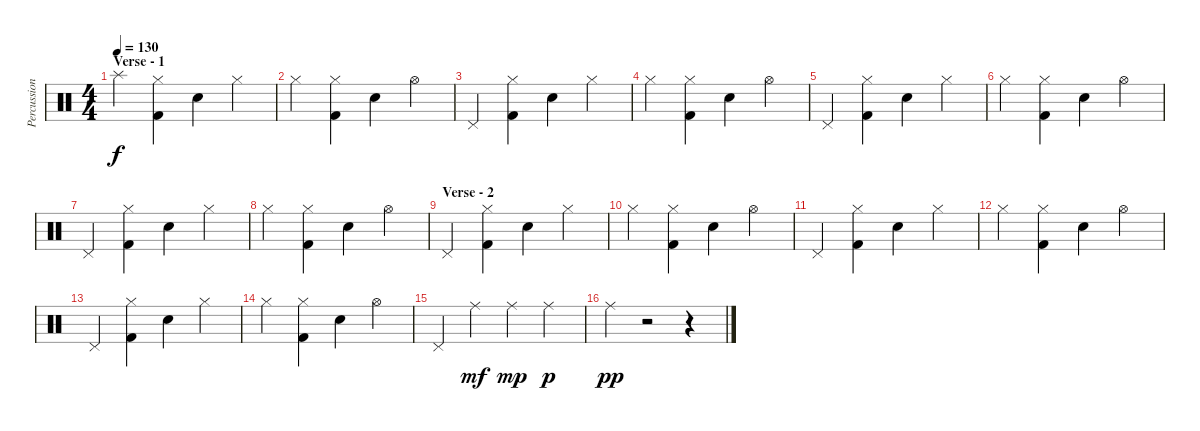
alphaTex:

\track ("Percussion" "Percussion") {instrument percussion}
\staff {score}
\articulation defaults
\ts (4 4)
\section ("" "Verse - 1")
\tempo 130
\clef neutral
\ks c "Splash (hit)".4{dy f}
("Hi-Hat (closed)" "Kick (hit) 2").4 "Snare (hit) 2".4 "Hi-Hat (closed)".4 |
"Hi-Hat (closed)".4 ("Hi-Hat (closed)" "Kick (hit) 2").4 "Snare (hit) 2".4 "Hi-Hat (open)".4 |
"Pedal Hi-Hat (hit)".4 ("Hi-Hat (closed)" "Kick (hit) 2").4 "Snare (hit) 2".4 "Hi-Hat (closed)".4 |
"Hi-Hat (closed)".4 ("Hi-Hat (closed)" "Kick (hit) 2").4 "Snare (hit) 2".4 "Hi-Hat (open)".4 |
"Pedal Hi-Hat (hit)".4 ("Hi-Hat (closed)" "Kick (hit) 2").4 "Snare (hit) 2".4 "Hi-Hat (closed)".4 |
"Hi-Hat (closed)".4 ("Hi-Hat (closed)" "Kick (hit) 2").4 "Snare (hit) 2".4 "Hi-Hat (open)".4 |
"Pedal Hi-Hat (hit)".4 ("Hi-Hat (closed)" "Kick (hit) 2").4 "Snare (hit) 2".4 "Hi-Hat (closed)".4 |
"Hi-Hat (closed)".4 ("Hi-Hat (closed)" "Kick (hit) 2").4 "Snare (hit) 2".4 "Hi-Hat (open)".4 |
\section ("" "Verse - 2")
"Pedal Hi-Hat (hit)".4 ("Hi-Hat (closed)" "Kick (hit) 2").4 "Snare (hit) 2".4 "Hi-Hat (closed)".4 |
"Hi-Hat (closed)".4 ("Hi-Hat (closed)" "Kick (hit) 2").4 "Snare (hit) 2".4 "Hi-Hat (open)".4 |
"Pedal Hi-Hat (hit)".4 ("Hi-Hat (closed)" "Kick (hit) 2").4 "Snare (hit) 2".4 "Hi-Hat (closed)".4 |
"Hi-Hat (closed)".4 ("Hi-Hat (closed)" "Kick (hit) 2").4 "Snare (hit) 2".4 "Hi-Hat (open)".4 |
"Pedal Hi-Hat (hit)".4 ("Hi-Hat (closed)" "Kick (hit) 2").4 "Snare (hit) 2".4 "Hi-Hat (closed)".4 |
"Hi-Hat (closed)".4 ("Hi-Hat (closed)" "Kick (hit) 2").4 "Snare (hit) 2".4 "Hi-Hat (open)".4 |
"Pedal Hi-Hat (hit)".4 "Ride (middle)".4{dy mf} "Ride (middle)".4{dy mp} "Ride (middle)".4{dy p} |
"Ride (middle)".4{dy pp} r.2 r.4
